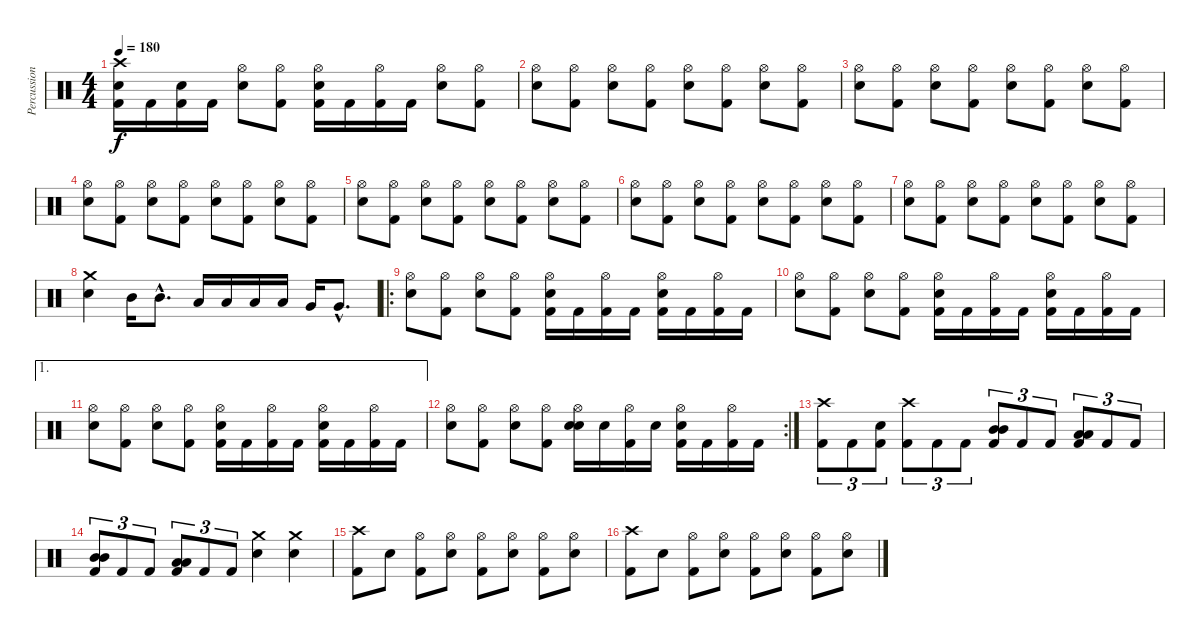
\track ("Percussion" "Percussion") {instrument percussion}
\staff {score}
\articulation defaults
\ts (4 4)
\tempo 180
\clef neutral
\ks c
("Crash high (hit)" "Snare (hit) 2" "Kick (hit) 2").16{dy f} "Kick (hit) 2".16 ("Snare (hit)" "Kick (hit) 2").16 "Kick (hit) 2".16 ("Hi-Hat (open)" "Snare (hit) 2").8 ("Hi-Hat (open)" "Kick (hit) 2").8 ("Hi-Hat (open)" "Snare (hit) 2" "Kick (hit) 2").16 "Kick (hit) 2".16 ("Hi-Hat (open)" "Kick (hit) 2").16 "Kick (hit) 2".16 ("Hi-Hat (open)" "Snare (hit) 2").8 ("Hi-Hat (open)" "Kick (hit) 2").8 |
("Hi-Hat (open)" "Snare (hit) 2").8 ("Hi-Hat (open)" "Kick (hit) 2").8 ("Hi-Hat (open)" "Snare (hit) 2").8 ("Hi-Hat (open)" "Kick (hit) 2").8 ("Hi-Hat (open)" "Snare (hit) 2").8 ("Hi-Hat (open)" "Kick (hit) 2").8 ("Hi-Hat (open)" "Snare (hit) 2").8 ("Hi-Hat (open)" "Kick (hit) 2").8 |
("Hi-Hat (open)" "Snare (hit) 2").8 ("Hi-Hat (open)" "Kick (hit) 2").8 ("Hi-Hat (open)" "Snare (hit) 2").8 ("Hi-Hat (open)" "Kick (hit) 2").8 ("Hi-Hat (open)" "Snare (hit) 2").8 ("Hi-Hat (open)" "Kick (hit) 2").8 ("Hi-Hat (open)" "Snare (hit) 2").8 ("Hi-Hat (open)" "Kick (hit) 2").8 |
("Hi-Hat (open)" "Snare (hit) 2").8 ("Hi-Hat (open)" "Kick (hit) 2").8 ("Hi-Hat (open)" "Snare (hit) 2").8 ("Hi-Hat (open)" "Kick (hit) 2").8 ("Hi-Hat (open)" "Snare (hit) 2").8 ("Hi-Hat (open)" "Kick (hit) 2").8 ("Hi-Hat (open)" "Snare (hit) 2").8 ("Hi-Hat (open)" "Kick (hit) 2").8 |
("Hi-Hat (open)" "Snare (hit) 2").8 ("Hi-Hat (open)" "Kick (hit) 2").8 ("Hi-Hat (open)" "Snare (hit) 2").8 ("Hi-Hat (open)" "Kick (hit) 2").8 ("Hi-Hat (open)" "Snare (hit) 2").8 ("Hi-Hat (open)" "Kick (hit) 2").8 ("Hi-Hat (open)" "Snare (hit) 2").8 ("Hi-Hat (open)" "Kick (hit) 2").8 |
("Hi-Hat (open)" "Snare (hit) 2").8 ("Hi-Hat (open)" "Kick (hit) 2").8 ("Hi-Hat (open)" "Snare (hit) 2").8 ("Hi-Hat (open)" "Kick (hit) 2").8 ("Hi-Hat (open)" "Snare (hit) 2").8 ("Hi-Hat (open)" "Kick (hit) 2").8 ("Hi-Hat (open)" "Snare (hit) 2").8 ("Hi-Hat (open)" "Kick (hit) 2").8 |
("Hi-Hat (open)" "Snare (hit) 2").8 ("Hi-Hat (open)" "Kick (hit) 2").8 ("Hi-Hat (open)" "Snare (hit) 2").8 ("Hi-Hat (open)" "Kick (hit) 2").8 ("Hi-Hat (open)" "Snare (hit) 2").8 ("Hi-Hat (open)" "Kick (hit) 2").8 ("Hi-Hat (open)" "Snare (hit) 2").8 ("Hi-Hat (open)" "Kick (hit) 2").8 |
("Crash medium (hit)" "Snare (hit) 2").4 "Mid Tom (hit)".16 "Mid Tom (hit)"{hac}.8{d} "Low Tom (hit)".16 "Low Tom (hit)".16 "Low Tom (hit)".16 "Low Tom (hit)".16 "Very Low Tom (hit)".16 "Very Low Tom (hit)"{hac}.8{d} |
\ro
("Hi-Hat (open)" "Snare (hit) 2").8 ("Hi-Hat (open)" "Kick (hit) 2").8 ("Hi-Hat (open)" "Snare (hit) 2").8 ("Hi-Hat (open)" "Kick (hit) 2").8 ("Hi-Hat (open)" "Snare (hit) 2" "Kick (hit) 2").16 "Kick (hit) 2".16 ("Hi-Hat (open)" "Kick (hit) 2").16 "Kick (hit) 2".16 ("Hi-Hat (open)" "Snare (hit) 2" "Kick (hit) 2").16 "Kick (hit) 2".16 ("Hi-Hat (open)" "Kick (hit) 2").16 "Kick (hit) 2".16 |
("Hi-Hat (open)" "Snare (hit) 2").8 ("Hi-Hat (open)" "Kick (hit) 2").8 ("Hi-Hat (open)" "Snare (hit) 2").8 ("Hi-Hat (open)" "Kick (hit) 2").8 ("Hi-Hat (open)" "Snare (hit) 2" "Kick (hit) 2").16 "Kick (hit) 2".16 ("Hi-Hat (open)" "Kick (hit) 2").16 "Kick (hit) 2".16 ("Hi-Hat (open)" "Snare (hit) 2" "Kick (hit) 2").16 "Kick (hit) 2".16 ("Hi-Hat (open)" "Kick (hit) 2").16 "Kick (hit) 2".16 |
\ae 1
("Hi-Hat (open)" "Snare (hit) 2").8 ("Hi-Hat (open)" "Kick (hit) 2").8 ("Hi-Hat (open)" "Snare (hit) 2").8 ("Hi-Hat (open)" "Kick (hit) 2").8 ("Hi-Hat (open)" "Snare (hit) 2" "Kick (hit) 2").16 "Kick (hit) 2".16 ("Hi-Hat (open)" "Kick (hit) 2").16 "Kick (hit) 2".16 ("Hi-Hat (open)" "Snare (hit) 2" "Kick (hit) 2").16 "Kick (hit) 2".16 ("Hi-Hat (open)" "Kick (hit) 2").16 "Kick (hit) 2".16 |
\rc 2
("Hi-Hat (open)" "Snare (hit) 2").8 ("Hi-Hat (open)" "Kick (hit) 2").8 ("Hi-Hat (open)" "Snare (hit) 2").8 ("Hi-Hat (open)" "Kick (hit) 2").8 ("Hi-Hat (open)" "Snare (hit) 2" "Snare (hit)").16 "Snare (hit)".16 ("Hi-Hat (open)" "Kick (hit) 2").16 "Snare (hit)".16 ("Hi-Hat (open)" "Snare (hit) 2" "Kick (hit) 2").16 "Kick (hit) 2".16 ("Hi-Hat (open)" "Kick (hit) 2").16 "Kick (hit) 2".16 |
("Crash high (hit)" "Kick (hit) 2").8{tu (3 2)} "Kick (hit) 2".8{tu (3 2)} ("Snare (hit)" "Kick (hit) 2").8{tu (3 2)} ("Crash high (hit)" "Kick (hit) 2").8{tu (3 2)} "Kick (hit) 2".8{tu (3 2)} "Kick (hit) 2".8{tu (3 2)} ("Mid Tom (hit)" "Mid Tom (hit)" "Kick (hit) 2").8{tu (3 2)} "Kick (hit) 2".8{tu (3 2)} "Kick (hit) 2".8{tu (3 2)} ("Low Tom (hit)" "Low Tom (hit)" "Kick (hit) 2").8{tu (3 2)} "Kick (hit) 2".8{tu (3 2)} "Kick (hit) 2".8{tu (3 2)} |
("Mid Tom (hit)" "Mid Tom (hit)" "Kick (hit) 2").8{tu (3 2)} "Kick (hit) 2".8{tu (3 2)} "Kick (hit) 2".8{tu (3 2)} ("Low Tom (hit)" "Low Tom (hit)" "Kick (hit) 2").8{tu (3 2)} "Kick (hit) 2".8{tu (3 2)} "Kick (hit) 2".8{tu (3 2)} ("Crash medium (hit)" "Snare (hit) 2").4 ("Crash medium (hit)" "Snare (hit) 2").4 |
("Crash high (hit)" "Kick (hit) 2").8 "Snare (hit) 2".8 ("Hi-Hat (open)" "Kick (hit) 2").8 ("Hi-Hat (open)" "Snare (hit) 2").8 ("Hi-Hat (open)" "Kick (hit) 2").8 ("Hi-Hat (open)" "Snare (hit) 2").8 ("Hi-Hat (open)" "Kick (hit) 2").8 ("Hi-Hat (open)" "Snare (hit) 2").8 |
("Crash high (hit)" "Kick (hit) 2").8 "Snare (hit) 2".8 ("Hi-Hat (open)" "Kick (hit) 2").8 ("Hi-Hat (open)" "Snare (hit) 2").8 ("Hi-Hat (open)" "Kick (hit) 2").8 ("Hi-Hat (open)" "Snare (hit) 2").8 ("Hi-Hat (open)" "Kick (hit) 2").8 ("Hi-Hat (open)" "Snare (hit) 2").8
